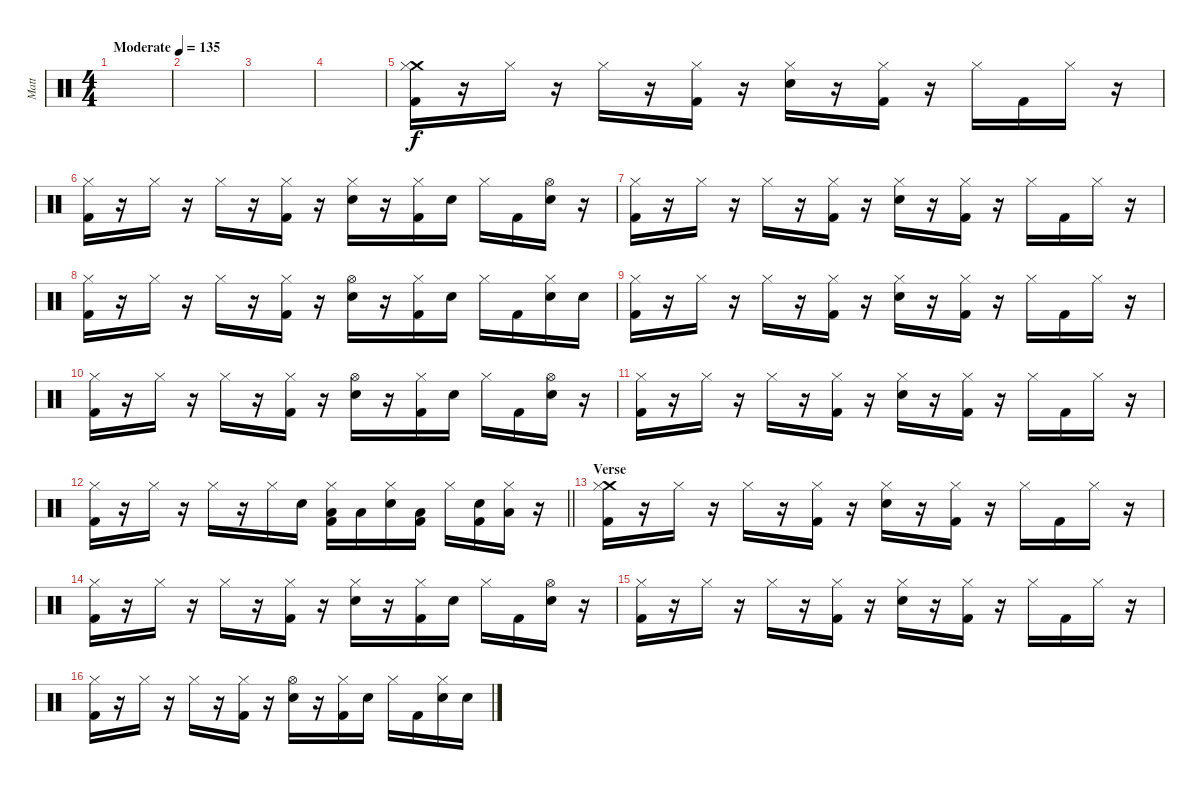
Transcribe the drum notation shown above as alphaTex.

\track ("Matt" "Matt") {instrument percussion}
\staff {score}
\articulation defaults
\ts (4 4)
\tempo (135 "Moderate")
\clef neutral
\ks c
|
|
|
|
("Crash medium (hit)" "Hi-Hat (closed)" "Kick (hit) 2").16 r.16 "Hi-Hat (closed)".16 r.16 "Hi-Hat (closed)".16 r.16 ("Hi-Hat (closed)" "Kick (hit) 2").16 r.16 ("Hi-Hat (closed)" "Snare (hit) 2").16 r.16 ("Hi-Hat (closed)" "Kick (hit) 2").16 r.16 "Hi-Hat (closed)".16 "Kick (hit) 2".16 "Hi-Hat (closed)".16 r.16 |
("Hi-Hat (closed)" "Kick (hit) 2").16 r.16 "Hi-Hat (closed)".16 r.16 "Hi-Hat (closed)".16 r.16 ("Hi-Hat (closed)" "Kick (hit) 2").16 r.16 ("Hi-Hat (closed)" "Snare (hit) 2").16 r.16 ("Hi-Hat (closed)" "Kick (hit) 2").16 "Snare (hit) 2".16 "Hi-Hat (closed)".16 "Kick (hit) 2".16 ("Hi-Hat (open)" "Snare (hit) 2").16 r.16 |
("Hi-Hat (closed)" "Kick (hit) 2").16 r.16 "Hi-Hat (closed)".16 r.16 "Hi-Hat (closed)".16 r.16 ("Hi-Hat (closed)" "Kick (hit) 2").16 r.16 ("Hi-Hat (closed)" "Snare (hit) 2").16 r.16 ("Hi-Hat (closed)" "Kick (hit) 2").16 r.16 "Hi-Hat (closed)".16 "Kick (hit) 2".16 "Hi-Hat (closed)".16 r.16 |
("Hi-Hat (closed)" "Kick (hit) 2").16 r.16 "Hi-Hat (closed)".16 r.16 "Hi-Hat (closed)".16 r.16 ("Hi-Hat (closed)" "Kick (hit) 2").16 r.16 ("Hi-Hat (open)" "Snare (hit) 2").16 r.16 ("Hi-Hat (closed)" "Kick (hit) 2").16 "Snare (hit) 2".16 "Hi-Hat (closed)".16 "Kick (hit) 2".16 ("Hi-Hat (closed)" "Snare (hit) 2").16 "Snare (hit) 2".16 |
("Hi-Hat (closed)" "Kick (hit) 2").16 r.16 "Hi-Hat (closed)".16 r.16 "Hi-Hat (closed)".16 r.16 ("Hi-Hat (closed)" "Kick (hit) 2").16 r.16 ("Hi-Hat (closed)" "Snare (hit) 2").16 r.16 ("Hi-Hat (closed)" "Kick (hit) 2").16 r.16 "Hi-Hat (closed)".16 "Kick (hit) 2".16 "Hi-Hat (closed)".16 r.16 |
("Hi-Hat (closed)" "Kick (hit) 2").16 r.16 "Hi-Hat (closed)".16 r.16 "Hi-Hat (closed)".16 r.16 ("Hi-Hat (closed)" "Kick (hit) 2").16 r.16 ("Hi-Hat (open)" "Snare (hit) 2").16 r.16 ("Hi-Hat (closed)" "Kick (hit) 2").16 "Snare (hit) 2".16 "Hi-Hat (closed)".16 "Kick (hit) 2".16 ("Hi-Hat (open)" "Snare (hit) 2").16 r.16 |
("Hi-Hat (closed)" "Kick (hit) 2").16 r.16 "Hi-Hat (closed)".16 r.16 "Hi-Hat (closed)".16 r.16 ("Hi-Hat (closed)" "Kick (hit) 2").16 r.16 ("Hi-Hat (closed)" "Snare (hit) 2").16 r.16 ("Hi-Hat (closed)" "Kick (hit) 2").16 r.16 "Hi-Hat (closed)".16 "Kick (hit) 2".16 "Hi-Hat (closed)".16 r.16 |
\barLineRight lightlight
("Hi-Hat (closed)" "Kick (hit) 2").16 r.16 "Hi-Hat (closed)".16 r.16 "Hi-Hat (closed)".16 r.16 "Hi-Hat (closed)".16 "Snare (hit) 2".16 ("Hi-Hat (closed)" "Low Tom (hit)" "Kick (hit) 2").16 "Low Tom (hit)".16 ("Hi-Hat (closed)" "Snare (hit) 2").16 ("Low Tom (hit)" "Kick (hit) 2").16 "Hi-Hat (closed)".16 ("Snare (hit) 2" "Kick (hit) 2").16 ("Hi-Hat (closed)" "Low Tom (hit)").16 r.16 |
\section ("" "Verse")
("Crash medium (hit)" "Hi-Hat (closed)" "Kick (hit) 2").16 r.16 "Hi-Hat (closed)".16 r.16 "Hi-Hat (closed)".16 r.16 ("Hi-Hat (closed)" "Kick (hit) 2").16 r.16 ("Hi-Hat (closed)" "Snare (hit) 2").16 r.16 ("Hi-Hat (closed)" "Kick (hit) 2").16 r.16 "Hi-Hat (closed)".16 "Kick (hit) 2".16 "Hi-Hat (closed)".16 r.16 |
("Hi-Hat (closed)" "Kick (hit) 2").16 r.16 "Hi-Hat (closed)".16 r.16 "Hi-Hat (closed)".16 r.16 ("Hi-Hat (closed)" "Kick (hit) 2").16 r.16 ("Hi-Hat (closed)" "Snare (hit) 2").16 r.16 ("Hi-Hat (closed)" "Kick (hit) 2").16 "Snare (hit) 2".16 "Hi-Hat (closed)".16 "Kick (hit) 2".16 ("Hi-Hat (open)" "Snare (hit) 2").16 r.16 |
("Hi-Hat (closed)" "Kick (hit) 2").16 r.16 "Hi-Hat (closed)".16 r.16 "Hi-Hat (closed)".16 r.16 ("Hi-Hat (closed)" "Kick (hit) 2").16 r.16 ("Hi-Hat (closed)" "Snare (hit) 2").16 r.16 ("Hi-Hat (closed)" "Kick (hit) 2").16 r.16 "Hi-Hat (closed)".16 "Kick (hit) 2".16 "Hi-Hat (closed)".16 r.16 |
("Hi-Hat (closed)" "Kick (hit) 2").16 r.16 "Hi-Hat (closed)".16 r.16 "Hi-Hat (closed)".16 r.16 ("Hi-Hat (closed)" "Kick (hit) 2").16 r.16 ("Hi-Hat (open)" "Snare (hit) 2").16 r.16 ("Hi-Hat (closed)" "Kick (hit) 2").16 "Snare (hit) 2".16 "Hi-Hat (closed)".16 "Kick (hit) 2".16 ("Hi-Hat (closed)" "Snare (hit) 2").16 "Snare (hit) 2".16
